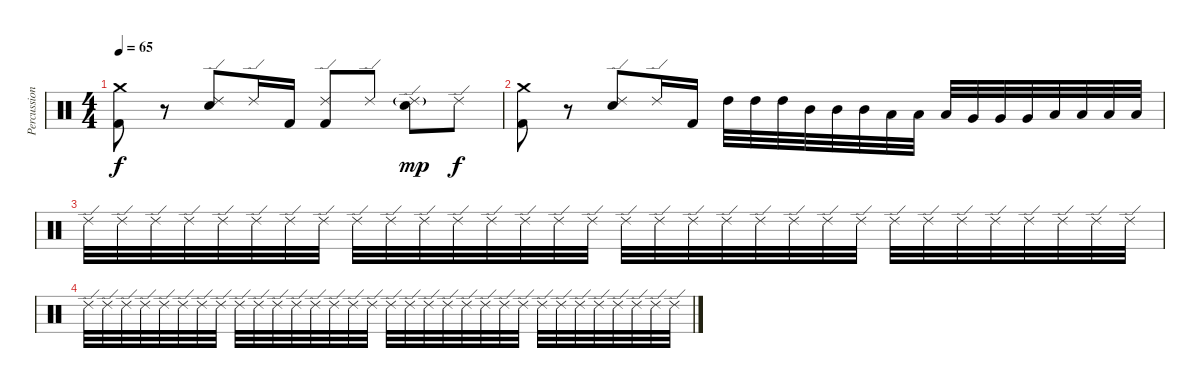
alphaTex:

\track ("Percussion" "Percussion") {instrument percussion}
\staff {score}
\articulation defaults
\ts (4 4)
\tempo 65
\clef neutral
\ks c
("Crash medium (hit)" "Kick (hit) 2").8{dy f} r.8 ("Ride (edge) 2" "Snare (hit) 2").8 "Ride (edge) 2".16 "Kick (hit) 2".16 ("Ride (edge) 2" "Kick (hit) 2").8 "Ride (edge) 2".8 ("Ride (edge) 2"{g} "Snare (hit) 2").8{dy mp} "Ride (edge) 2".8{dy f} |
("Crash medium (hit)" "Kick (hit) 2").8 r.8 ("Ride (edge) 2" "Snare (hit) 2").8 "Ride (edge) 2".16 "Kick (hit) 2".16 "High Tom (hit)".32 "High Tom (hit)".32 "High Tom (hit)".32 "Mid Tom (hit)".32 "Mid Tom (hit)".32 "Mid Tom (hit)".32 "Low Tom (hit)".32 "Low Tom (hit)".32 "Low Tom (hit)".32 "Very Low Tom (hit)".32 "Very Low Tom (hit)".32 "Very Low Tom (hit)".32 "Low Floor Tom (hit)".32 "Low Floor Tom (hit)".32 "Low Floor Tom (hit)".32 "Low Floor Tom (hit)".32 |
"Ride (edge) 2".32{volume 16 balance 16} "Ride (edge) 2".32 "Ride (edge) 2".32 "Ride (edge) 2".32 "Ride (edge) 2".32 "Ride (edge) 2".32 "Ride (edge) 2".32{volume 14} "Ride (edge) 2".32 "Ride (edge) 2".32 "Ride (edge) 2".32 "Ride (edge) 2".32 "Ride (edge) 2".32 "Ride (edge) 2".32{volume 12 balance 0} "Ride (edge) 2".32 "Ride (edge) 2".32 "Ride (edge) 2".32 "Ride (edge) 2".32 "Ride (edge) 2".32 "Ride (edge) 2".32{volume 10 balance 16} "Ride (edge) 2".32 "Ride (edge) 2".32 "Ride (edge) 2".32 "Ride (edge) 2".32 "Ride (edge) 2".32 "Ride (edge) 2".32{volume 8 balance 0} "Ride (edge) 2".32 "Ride (edge) 2".32 "Ride (edge) 2".32 "Ride (edge) 2".32 "Ride (edge) 2".32 "Ride (edge) 2".32{volume 6 balance 16} "Ride (edge) 2".32 |
"Ride (edge) 2".32{volume 5 balance 0} "Ride (edge) 2".32 "Ride (edge) 2".32 "Ride (edge) 2".32 "Ride (edge) 2".32 "Ride (edge) 2".32 "Ride (edge) 2".32{volume 4} "Ride (edge) 2".32 "Ride (edge) 2".32 "Ride (edge) 2".32 "Ride (edge) 2".32 "Ride (edge) 2".32 "Ride (edge) 2".32{volume 3 balance 16} "Ride (edge) 2".32 "Ride (edge) 2".32 "Ride (edge) 2".32 "Ride (edge) 2".32 "Ride (edge) 2".32 "Ride (edge) 2".32{volume 2} "Ride (edge) 2".32 "Ride (edge) 2".32 "Ride (edge) 2".32 "Ride (edge) 2".32 "Ride (edge) 2".32 "Ride (edge) 2".32{volume 1 balance 8} "Ride (edge) 2".32 "Ride (edge) 2".32 "Ride (edge) 2".32 "Ride (edge) 2".32 "Ride (edge) 2".32 "Ride (edge) 2".32{volume 0} "Ride (edge) 2".32
